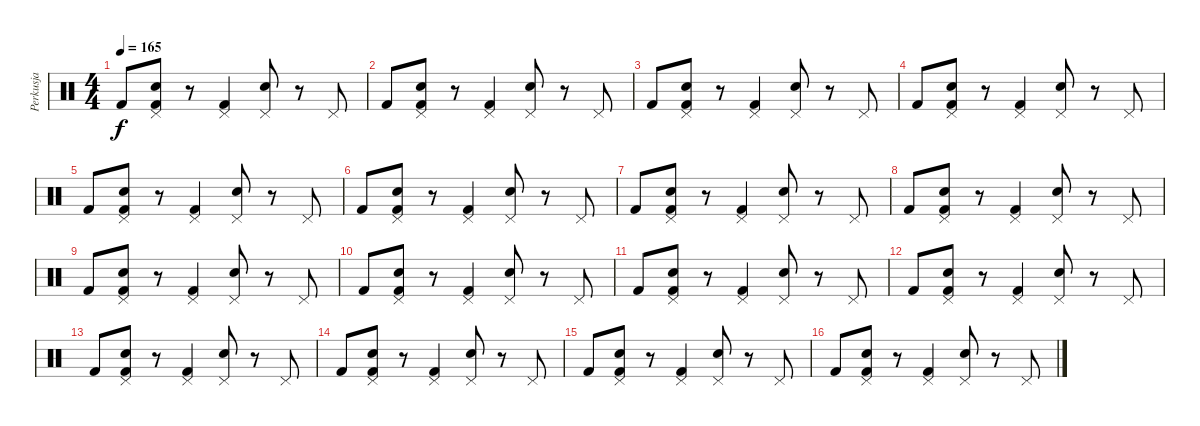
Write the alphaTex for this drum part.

\track ("Perkusja" "Perkusja") {instrument percussion}
\staff {score}
\articulation defaults
\ts (4 4)
\tempo 165
\clef neutral
\ks c "Kick (hit) 2".8{dy f}
("Pedal Hi-Hat (hit)" "Electric Snare (hit)" "Kick (hit) 2").8 r.8 ("Pedal Hi-Hat (hit)" "Kick (hit) 2").4 ("Pedal Hi-Hat (hit)" "Electric Snare (hit)").8 r.8 "Pedal Hi-Hat (hit)".8 |
"Kick (hit) 2".8 ("Pedal Hi-Hat (hit)" "Electric Snare (hit)" "Kick (hit) 2").8 r.8 ("Pedal Hi-Hat (hit)" "Kick (hit) 2").4 ("Pedal Hi-Hat (hit)" "Electric Snare (hit)").8 r.8 "Pedal Hi-Hat (hit)".8 |
"Kick (hit) 2".8 ("Pedal Hi-Hat (hit)" "Electric Snare (hit)" "Kick (hit) 2").8 r.8 ("Pedal Hi-Hat (hit)" "Kick (hit) 2").4 ("Pedal Hi-Hat (hit)" "Electric Snare (hit)").8 r.8 "Pedal Hi-Hat (hit)".8 |
"Kick (hit) 2".8 ("Pedal Hi-Hat (hit)" "Electric Snare (hit)" "Kick (hit) 2").8 r.8 ("Pedal Hi-Hat (hit)" "Kick (hit) 2").4 ("Pedal Hi-Hat (hit)" "Electric Snare (hit)").8 r.8 "Pedal Hi-Hat (hit)".8 |
"Kick (hit) 2".8 ("Pedal Hi-Hat (hit)" "Electric Snare (hit)" "Kick (hit) 2").8 r.8 ("Pedal Hi-Hat (hit)" "Kick (hit) 2").4 ("Pedal Hi-Hat (hit)" "Electric Snare (hit)").8 r.8 "Pedal Hi-Hat (hit)".8 |
"Kick (hit) 2".8 ("Pedal Hi-Hat (hit)" "Electric Snare (hit)" "Kick (hit) 2").8 r.8 ("Pedal Hi-Hat (hit)" "Kick (hit) 2").4 ("Pedal Hi-Hat (hit)" "Electric Snare (hit)").8 r.8 "Pedal Hi-Hat (hit)".8 |
"Kick (hit) 2".8 ("Pedal Hi-Hat (hit)" "Electric Snare (hit)" "Kick (hit) 2").8 r.8 ("Pedal Hi-Hat (hit)" "Kick (hit) 2").4 ("Pedal Hi-Hat (hit)" "Electric Snare (hit)").8 r.8 "Pedal Hi-Hat (hit)".8 |
"Kick (hit) 2".8 ("Pedal Hi-Hat (hit)" "Electric Snare (hit)" "Kick (hit) 2").8 r.8 ("Pedal Hi-Hat (hit)" "Kick (hit) 2").4 ("Pedal Hi-Hat (hit)" "Electric Snare (hit)").8 r.8 "Pedal Hi-Hat (hit)".8 |
"Kick (hit) 2".8 ("Pedal Hi-Hat (hit)" "Electric Snare (hit)" "Kick (hit) 2").8 r.8 ("Pedal Hi-Hat (hit)" "Kick (hit) 2").4 ("Pedal Hi-Hat (hit)" "Electric Snare (hit)").8 r.8 "Pedal Hi-Hat (hit)".8 |
"Kick (hit) 2".8 ("Pedal Hi-Hat (hit)" "Electric Snare (hit)" "Kick (hit) 2").8 r.8 ("Pedal Hi-Hat (hit)" "Kick (hit) 2").4 ("Pedal Hi-Hat (hit)" "Electric Snare (hit)").8 r.8 "Pedal Hi-Hat (hit)".8 |
"Kick (hit) 2".8 ("Pedal Hi-Hat (hit)" "Electric Snare (hit)" "Kick (hit) 2").8 r.8 ("Pedal Hi-Hat (hit)" "Kick (hit) 2").4 ("Pedal Hi-Hat (hit)" "Electric Snare (hit)").8 r.8 "Pedal Hi-Hat (hit)".8 |
"Kick (hit) 2".8 ("Pedal Hi-Hat (hit)" "Electric Snare (hit)" "Kick (hit) 2").8 r.8 ("Pedal Hi-Hat (hit)" "Kick (hit) 2").4 ("Pedal Hi-Hat (hit)" "Electric Snare (hit)").8 r.8 "Pedal Hi-Hat (hit)".8 |
"Kick (hit) 2".8 ("Pedal Hi-Hat (hit)" "Electric Snare (hit)" "Kick (hit) 2").8 r.8 ("Pedal Hi-Hat (hit)" "Kick (hit) 2").4 ("Pedal Hi-Hat (hit)" "Electric Snare (hit)").8 r.8 "Pedal Hi-Hat (hit)".8 |
"Kick (hit) 2".8 ("Pedal Hi-Hat (hit)" "Electric Snare (hit)" "Kick (hit) 2").8 r.8 ("Pedal Hi-Hat (hit)" "Kick (hit) 2").4 ("Pedal Hi-Hat (hit)" "Electric Snare (hit)").8 r.8 "Pedal Hi-Hat (hit)".8 |
"Kick (hit) 2".8 ("Pedal Hi-Hat (hit)" "Electric Snare (hit)" "Kick (hit) 2").8 r.8 ("Pedal Hi-Hat (hit)" "Kick (hit) 2").4 ("Pedal Hi-Hat (hit)" "Electric Snare (hit)").8 r.8 "Pedal Hi-Hat (hit)".8 |
"Kick (hit) 2".8 ("Pedal Hi-Hat (hit)" "Electric Snare (hit)" "Kick (hit) 2").8 r.8 ("Pedal Hi-Hat (hit)" "Kick (hit) 2").4 ("Pedal Hi-Hat (hit)" "Electric Snare (hit)").8 r.8 "Pedal Hi-Hat (hit)".8
